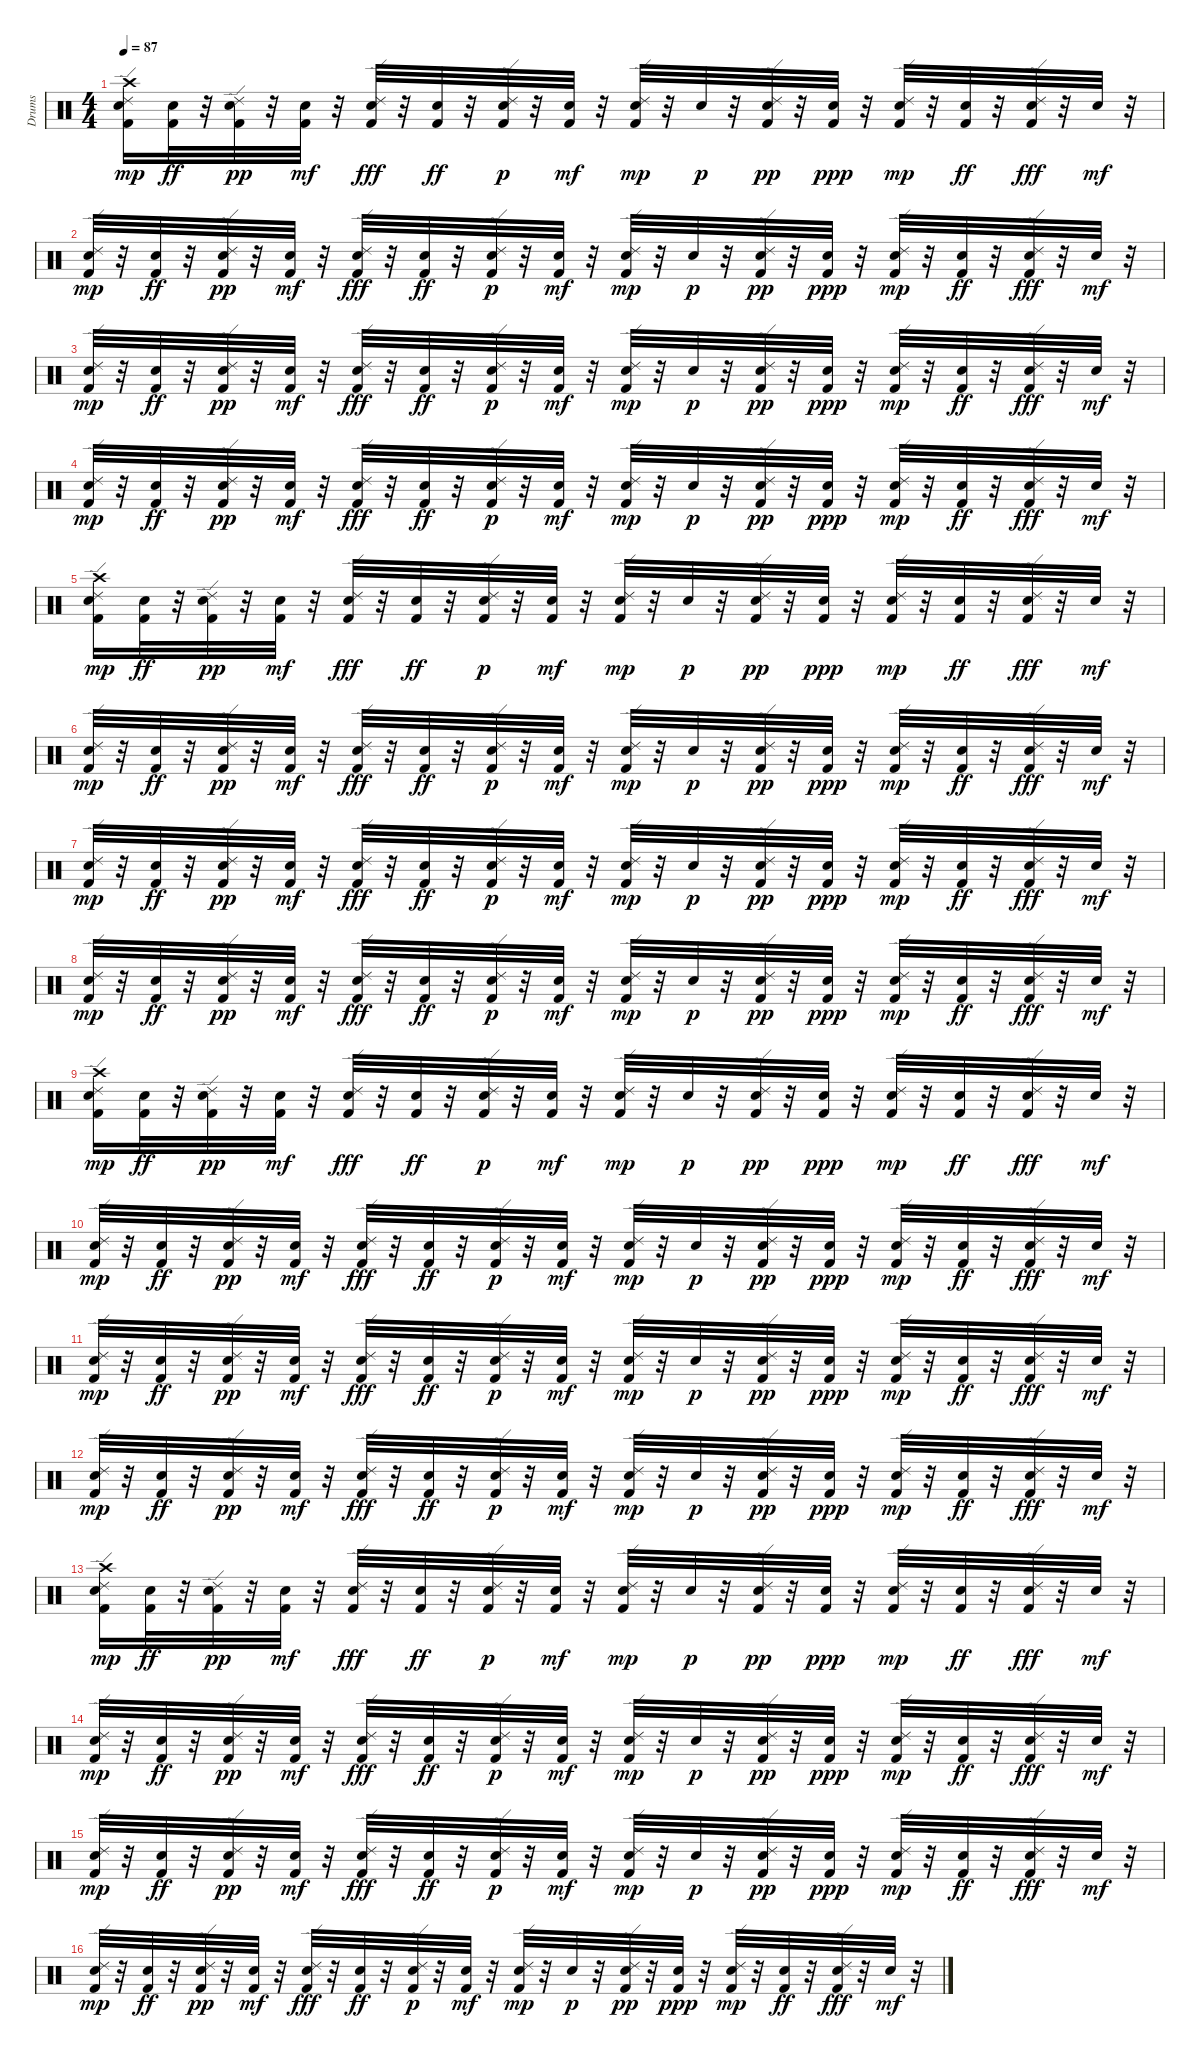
\track ("Drums" "Drums") {instrument percussion}
\staff {score}
\articulation defaults
\ts (4 4)
\tempo 87
\clef neutral
\ks c
("Crash high (hit)" "Ride (edge) 2" "Kick (hit) 2" "Snare (hit) 2").16{dy mp} ("Snare (hit) 2" "Kick (hit) 2").32{dy ff} r.32 ("Ride (edge) 2" "Kick (hit) 2" "Snare (hit) 2").32{dy pp} r.32 ("Snare (hit) 2" "Kick (hit) 2").32{dy mf} r.32 ("Ride (edge) 2" "Kick (hit) 2" "Snare (hit) 2").32{dy fff} r.32 ("Kick (hit) 2" "Snare (hit) 2").32{dy ff} r.32 ("Ride (edge) 2" "Kick (hit) 2" "Snare (hit) 2").32{dy p} r.32 ("Kick (hit) 2" "Snare (hit) 2").32{dy mf} r.32 ("Ride (edge) 2" "Kick (hit) 2" "Snare (hit) 2").32{dy mp} r.32 "Snare (hit) 2".32{dy p} r.32 ("Ride (edge) 2" "Kick (hit) 2" "Snare (hit) 2").32{dy pp} r.32 ("Snare (hit) 2" "Kick (hit) 2").32{dy ppp} r.32 ("Ride (edge) 2" "Snare (hit) 2" "Kick (hit) 2").32{dy mp} r.32 ("Kick (hit) 2" "Snare (hit) 2").32{dy ff} r.32 ("Ride (edge) 2" "Kick (hit) 2" "Snare (hit) 2").32{dy fff} r.32 "Snare (hit) 2".32{dy mf} r.32 |
("Ride (edge) 2" "Kick (hit) 2" "Snare (hit) 2").32{dy mp} r.32 ("Snare (hit) 2" "Kick (hit) 2").32{dy ff} r.32 ("Ride (edge) 2" "Kick (hit) 2" "Snare (hit) 2").32{dy pp} r.32 ("Snare (hit) 2" "Kick (hit) 2").32{dy mf} r.32 ("Ride (edge) 2" "Kick (hit) 2" "Snare (hit) 2").32{dy fff} r.32 ("Kick (hit) 2" "Snare (hit) 2").32{dy ff} r.32 ("Ride (edge) 2" "Kick (hit) 2" "Snare (hit) 2").32{dy p} r.32 ("Kick (hit) 2" "Snare (hit) 2").32{dy mf} r.32 ("Ride (edge) 2" "Kick (hit) 2" "Snare (hit) 2").32{dy mp} r.32 "Snare (hit) 2".32{dy p} r.32 ("Ride (edge) 2" "Kick (hit) 2" "Snare (hit) 2").32{dy pp} r.32 ("Snare (hit) 2" "Kick (hit) 2").32{dy ppp} r.32 ("Ride (edge) 2" "Snare (hit) 2" "Kick (hit) 2").32{dy mp} r.32 ("Kick (hit) 2" "Snare (hit) 2").32{dy ff} r.32 ("Ride (edge) 2" "Kick (hit) 2" "Snare (hit) 2").32{dy fff} r.32 "Snare (hit) 2".32{dy mf} r.32 |
("Ride (edge) 2" "Kick (hit) 2" "Snare (hit) 2").32{dy mp} r.32 ("Snare (hit) 2" "Kick (hit) 2").32{dy ff} r.32 ("Ride (edge) 2" "Kick (hit) 2" "Snare (hit) 2").32{dy pp} r.32 ("Snare (hit) 2" "Kick (hit) 2").32{dy mf} r.32 ("Ride (edge) 2" "Kick (hit) 2" "Snare (hit) 2").32{dy fff} r.32 ("Kick (hit) 2" "Snare (hit) 2").32{dy ff} r.32 ("Ride (edge) 2" "Kick (hit) 2" "Snare (hit) 2").32{dy p} r.32 ("Kick (hit) 2" "Snare (hit) 2").32{dy mf} r.32 ("Ride (edge) 2" "Kick (hit) 2" "Snare (hit) 2").32{dy mp} r.32 "Snare (hit) 2".32{dy p} r.32 ("Ride (edge) 2" "Kick (hit) 2" "Snare (hit) 2").32{dy pp} r.32 ("Snare (hit) 2" "Kick (hit) 2").32{dy ppp} r.32 ("Ride (edge) 2" "Snare (hit) 2" "Kick (hit) 2").32{dy mp} r.32 ("Kick (hit) 2" "Snare (hit) 2").32{dy ff} r.32 ("Ride (edge) 2" "Kick (hit) 2" "Snare (hit) 2").32{dy fff} r.32 "Snare (hit) 2".32{dy mf} r.32 |
("Ride (edge) 2" "Kick (hit) 2" "Snare (hit) 2").32{dy mp} r.32 ("Snare (hit) 2" "Kick (hit) 2").32{dy ff} r.32 ("Ride (edge) 2" "Kick (hit) 2" "Snare (hit) 2").32{dy pp} r.32 ("Snare (hit) 2" "Kick (hit) 2").32{dy mf} r.32 ("Ride (edge) 2" "Kick (hit) 2" "Snare (hit) 2").32{dy fff} r.32 ("Kick (hit) 2" "Snare (hit) 2").32{dy ff} r.32 ("Ride (edge) 2" "Kick (hit) 2" "Snare (hit) 2").32{dy p} r.32 ("Kick (hit) 2" "Snare (hit) 2").32{dy mf} r.32 ("Ride (edge) 2" "Kick (hit) 2" "Snare (hit) 2").32{dy mp} r.32 "Snare (hit) 2".32{dy p} r.32 ("Ride (edge) 2" "Kick (hit) 2" "Snare (hit) 2").32{dy pp} r.32 ("Snare (hit) 2" "Kick (hit) 2").32{dy ppp} r.32 ("Ride (edge) 2" "Snare (hit) 2" "Kick (hit) 2").32{dy mp} r.32 ("Kick (hit) 2" "Snare (hit) 2").32{dy ff} r.32 ("Ride (edge) 2" "Kick (hit) 2" "Snare (hit) 2").32{dy fff} r.32 "Snare (hit) 2".32{dy mf} r.32 |
("Crash high (hit)" "Ride (edge) 2" "Kick (hit) 2" "Snare (hit) 2").16{dy mp} ("Snare (hit) 2" "Kick (hit) 2").32{dy ff} r.32 ("Ride (edge) 2" "Kick (hit) 2" "Snare (hit) 2").32{dy pp} r.32 ("Snare (hit) 2" "Kick (hit) 2").32{dy mf} r.32 ("Ride (edge) 2" "Kick (hit) 2" "Snare (hit) 2").32{dy fff} r.32 ("Kick (hit) 2" "Snare (hit) 2").32{dy ff} r.32 ("Ride (edge) 2" "Kick (hit) 2" "Snare (hit) 2").32{dy p} r.32 ("Kick (hit) 2" "Snare (hit) 2").32{dy mf} r.32 ("Ride (edge) 2" "Kick (hit) 2" "Snare (hit) 2").32{dy mp} r.32 "Snare (hit) 2".32{dy p} r.32 ("Ride (edge) 2" "Kick (hit) 2" "Snare (hit) 2").32{dy pp} r.32 ("Snare (hit) 2" "Kick (hit) 2").32{dy ppp} r.32 ("Ride (edge) 2" "Snare (hit) 2" "Kick (hit) 2").32{dy mp} r.32 ("Kick (hit) 2" "Snare (hit) 2").32{dy ff} r.32 ("Ride (edge) 2" "Kick (hit) 2" "Snare (hit) 2").32{dy fff} r.32 "Snare (hit) 2".32{dy mf} r.32 |
("Ride (edge) 2" "Kick (hit) 2" "Snare (hit) 2").32{dy mp} r.32 ("Snare (hit) 2" "Kick (hit) 2").32{dy ff} r.32 ("Ride (edge) 2" "Kick (hit) 2" "Snare (hit) 2").32{dy pp} r.32 ("Snare (hit) 2" "Kick (hit) 2").32{dy mf} r.32 ("Ride (edge) 2" "Kick (hit) 2" "Snare (hit) 2").32{dy fff} r.32 ("Kick (hit) 2" "Snare (hit) 2").32{dy ff} r.32 ("Ride (edge) 2" "Kick (hit) 2" "Snare (hit) 2").32{dy p} r.32 ("Kick (hit) 2" "Snare (hit) 2").32{dy mf} r.32 ("Ride (edge) 2" "Kick (hit) 2" "Snare (hit) 2").32{dy mp} r.32 "Snare (hit) 2".32{dy p} r.32 ("Ride (edge) 2" "Kick (hit) 2" "Snare (hit) 2").32{dy pp} r.32 ("Snare (hit) 2" "Kick (hit) 2").32{dy ppp} r.32 ("Ride (edge) 2" "Snare (hit) 2" "Kick (hit) 2").32{dy mp} r.32 ("Kick (hit) 2" "Snare (hit) 2").32{dy ff} r.32 ("Ride (edge) 2" "Kick (hit) 2" "Snare (hit) 2").32{dy fff} r.32 "Snare (hit) 2".32{dy mf} r.32 |
("Ride (edge) 2" "Kick (hit) 2" "Snare (hit) 2").32{dy mp} r.32 ("Snare (hit) 2" "Kick (hit) 2").32{dy ff} r.32 ("Ride (edge) 2" "Kick (hit) 2" "Snare (hit) 2").32{dy pp} r.32 ("Snare (hit) 2" "Kick (hit) 2").32{dy mf} r.32 ("Ride (edge) 2" "Kick (hit) 2" "Snare (hit) 2").32{dy fff} r.32 ("Kick (hit) 2" "Snare (hit) 2").32{dy ff} r.32 ("Ride (edge) 2" "Kick (hit) 2" "Snare (hit) 2").32{dy p} r.32 ("Kick (hit) 2" "Snare (hit) 2").32{dy mf} r.32 ("Ride (edge) 2" "Kick (hit) 2" "Snare (hit) 2").32{dy mp} r.32 "Snare (hit) 2".32{dy p} r.32 ("Ride (edge) 2" "Kick (hit) 2" "Snare (hit) 2").32{dy pp} r.32 ("Snare (hit) 2" "Kick (hit) 2").32{dy ppp} r.32 ("Ride (edge) 2" "Snare (hit) 2" "Kick (hit) 2").32{dy mp} r.32 ("Kick (hit) 2" "Snare (hit) 2").32{dy ff} r.32 ("Ride (edge) 2" "Kick (hit) 2" "Snare (hit) 2").32{dy fff} r.32 "Snare (hit) 2".32{dy mf} r.32 |
("Ride (edge) 2" "Kick (hit) 2" "Snare (hit) 2").32{dy mp} r.32 ("Snare (hit) 2" "Kick (hit) 2").32{dy ff} r.32 ("Ride (edge) 2" "Kick (hit) 2" "Snare (hit) 2").32{dy pp} r.32 ("Snare (hit) 2" "Kick (hit) 2").32{dy mf} r.32 ("Ride (edge) 2" "Kick (hit) 2" "Snare (hit) 2").32{dy fff} r.32 ("Kick (hit) 2" "Snare (hit) 2").32{dy ff} r.32 ("Ride (edge) 2" "Kick (hit) 2" "Snare (hit) 2").32{dy p} r.32 ("Kick (hit) 2" "Snare (hit) 2").32{dy mf} r.32 ("Ride (edge) 2" "Kick (hit) 2" "Snare (hit) 2").32{dy mp} r.32 "Snare (hit) 2".32{dy p} r.32 ("Ride (edge) 2" "Kick (hit) 2" "Snare (hit) 2").32{dy pp} r.32 ("Snare (hit) 2" "Kick (hit) 2").32{dy ppp} r.32 ("Ride (edge) 2" "Snare (hit) 2" "Kick (hit) 2").32{dy mp} r.32 ("Kick (hit) 2" "Snare (hit) 2").32{dy ff} r.32 ("Ride (edge) 2" "Kick (hit) 2" "Snare (hit) 2").32{dy fff} r.32 "Snare (hit) 2".32{dy mf} r.32 |
("Crash high (hit)" "Ride (edge) 2" "Kick (hit) 2" "Snare (hit) 2").16{dy mp} ("Snare (hit) 2" "Kick (hit) 2").32{dy ff} r.32 ("Ride (edge) 2" "Kick (hit) 2" "Snare (hit) 2").32{dy pp} r.32 ("Snare (hit) 2" "Kick (hit) 2").32{dy mf} r.32 ("Ride (edge) 2" "Kick (hit) 2" "Snare (hit) 2").32{dy fff} r.32 ("Kick (hit) 2" "Snare (hit) 2").32{dy ff} r.32 ("Ride (edge) 2" "Kick (hit) 2" "Snare (hit) 2").32{dy p} r.32 ("Kick (hit) 2" "Snare (hit) 2").32{dy mf} r.32 ("Ride (edge) 2" "Kick (hit) 2" "Snare (hit) 2").32{dy mp} r.32 "Snare (hit) 2".32{dy p} r.32 ("Ride (edge) 2" "Kick (hit) 2" "Snare (hit) 2").32{dy pp} r.32 ("Snare (hit) 2" "Kick (hit) 2").32{dy ppp} r.32 ("Ride (edge) 2" "Snare (hit) 2" "Kick (hit) 2").32{dy mp} r.32 ("Kick (hit) 2" "Snare (hit) 2").32{dy ff} r.32 ("Ride (edge) 2" "Kick (hit) 2" "Snare (hit) 2").32{dy fff} r.32 "Snare (hit) 2".32{dy mf} r.32 |
("Ride (edge) 2" "Kick (hit) 2" "Snare (hit) 2").32{dy mp} r.32 ("Snare (hit) 2" "Kick (hit) 2").32{dy ff} r.32 ("Ride (edge) 2" "Kick (hit) 2" "Snare (hit) 2").32{dy pp} r.32 ("Snare (hit) 2" "Kick (hit) 2").32{dy mf} r.32 ("Ride (edge) 2" "Kick (hit) 2" "Snare (hit) 2").32{dy fff} r.32 ("Kick (hit) 2" "Snare (hit) 2").32{dy ff} r.32 ("Ride (edge) 2" "Kick (hit) 2" "Snare (hit) 2").32{dy p} r.32 ("Kick (hit) 2" "Snare (hit) 2").32{dy mf} r.32 ("Ride (edge) 2" "Kick (hit) 2" "Snare (hit) 2").32{dy mp} r.32 "Snare (hit) 2".32{dy p} r.32 ("Ride (edge) 2" "Kick (hit) 2" "Snare (hit) 2").32{dy pp} r.32 ("Snare (hit) 2" "Kick (hit) 2").32{dy ppp} r.32 ("Ride (edge) 2" "Snare (hit) 2" "Kick (hit) 2").32{dy mp} r.32 ("Kick (hit) 2" "Snare (hit) 2").32{dy ff} r.32 ("Ride (edge) 2" "Kick (hit) 2" "Snare (hit) 2").32{dy fff} r.32 "Snare (hit) 2".32{dy mf} r.32 |
("Ride (edge) 2" "Kick (hit) 2" "Snare (hit) 2").32{dy mp} r.32 ("Snare (hit) 2" "Kick (hit) 2").32{dy ff} r.32 ("Ride (edge) 2" "Kick (hit) 2" "Snare (hit) 2").32{dy pp} r.32 ("Snare (hit) 2" "Kick (hit) 2").32{dy mf} r.32 ("Ride (edge) 2" "Kick (hit) 2" "Snare (hit) 2").32{dy fff} r.32 ("Kick (hit) 2" "Snare (hit) 2").32{dy ff} r.32 ("Ride (edge) 2" "Kick (hit) 2" "Snare (hit) 2").32{dy p} r.32 ("Kick (hit) 2" "Snare (hit) 2").32{dy mf} r.32 ("Ride (edge) 2" "Kick (hit) 2" "Snare (hit) 2").32{dy mp} r.32 "Snare (hit) 2".32{dy p} r.32 ("Ride (edge) 2" "Kick (hit) 2" "Snare (hit) 2").32{dy pp} r.32 ("Snare (hit) 2" "Kick (hit) 2").32{dy ppp} r.32 ("Ride (edge) 2" "Snare (hit) 2" "Kick (hit) 2").32{dy mp} r.32 ("Kick (hit) 2" "Snare (hit) 2").32{dy ff} r.32 ("Ride (edge) 2" "Kick (hit) 2" "Snare (hit) 2").32{dy fff} r.32 "Snare (hit) 2".32{dy mf} r.32 |
("Ride (edge) 2" "Kick (hit) 2" "Snare (hit) 2").32{dy mp} r.32 ("Snare (hit) 2" "Kick (hit) 2").32{dy ff} r.32 ("Ride (edge) 2" "Kick (hit) 2" "Snare (hit) 2").32{dy pp} r.32 ("Snare (hit) 2" "Kick (hit) 2").32{dy mf} r.32 ("Ride (edge) 2" "Kick (hit) 2" "Snare (hit) 2").32{dy fff} r.32 ("Kick (hit) 2" "Snare (hit) 2").32{dy ff} r.32 ("Ride (edge) 2" "Kick (hit) 2" "Snare (hit) 2").32{dy p} r.32 ("Kick (hit) 2" "Snare (hit) 2").32{dy mf} r.32 ("Ride (edge) 2" "Kick (hit) 2" "Snare (hit) 2").32{dy mp} r.32 "Snare (hit) 2".32{dy p} r.32 ("Ride (edge) 2" "Kick (hit) 2" "Snare (hit) 2").32{dy pp} r.32 ("Snare (hit) 2" "Kick (hit) 2").32{dy ppp} r.32 ("Ride (edge) 2" "Snare (hit) 2" "Kick (hit) 2").32{dy mp} r.32 ("Kick (hit) 2" "Snare (hit) 2").32{dy ff} r.32 ("Ride (edge) 2" "Kick (hit) 2" "Snare (hit) 2").32{dy fff} r.32 "Snare (hit) 2".32{dy mf} r.32 |
("Crash high (hit)" "Ride (edge) 2" "Kick (hit) 2" "Snare (hit) 2").16{dy mp} ("Snare (hit) 2" "Kick (hit) 2").32{dy ff} r.32 ("Ride (edge) 2" "Kick (hit) 2" "Snare (hit) 2").32{dy pp} r.32 ("Snare (hit) 2" "Kick (hit) 2").32{dy mf} r.32 ("Ride (edge) 2" "Kick (hit) 2" "Snare (hit) 2").32{dy fff} r.32 ("Kick (hit) 2" "Snare (hit) 2").32{dy ff} r.32 ("Ride (edge) 2" "Kick (hit) 2" "Snare (hit) 2").32{dy p} r.32 ("Kick (hit) 2" "Snare (hit) 2").32{dy mf} r.32 ("Ride (edge) 2" "Kick (hit) 2" "Snare (hit) 2").32{dy mp} r.32 "Snare (hit) 2".32{dy p} r.32 ("Ride (edge) 2" "Kick (hit) 2" "Snare (hit) 2").32{dy pp} r.32 ("Snare (hit) 2" "Kick (hit) 2").32{dy ppp} r.32 ("Ride (edge) 2" "Snare (hit) 2" "Kick (hit) 2").32{dy mp} r.32 ("Kick (hit) 2" "Snare (hit) 2").32{dy ff} r.32 ("Ride (edge) 2" "Kick (hit) 2" "Snare (hit) 2").32{dy fff} r.32 "Snare (hit) 2".32{dy mf} r.32 |
("Ride (edge) 2" "Kick (hit) 2" "Snare (hit) 2").32{dy mp} r.32 ("Snare (hit) 2" "Kick (hit) 2").32{dy ff} r.32 ("Ride (edge) 2" "Kick (hit) 2" "Snare (hit) 2").32{dy pp} r.32 ("Snare (hit) 2" "Kick (hit) 2").32{dy mf} r.32 ("Ride (edge) 2" "Kick (hit) 2" "Snare (hit) 2").32{dy fff} r.32 ("Kick (hit) 2" "Snare (hit) 2").32{dy ff} r.32 ("Ride (edge) 2" "Kick (hit) 2" "Snare (hit) 2").32{dy p} r.32 ("Kick (hit) 2" "Snare (hit) 2").32{dy mf} r.32 ("Ride (edge) 2" "Kick (hit) 2" "Snare (hit) 2").32{dy mp} r.32 "Snare (hit) 2".32{dy p} r.32 ("Ride (edge) 2" "Kick (hit) 2" "Snare (hit) 2").32{dy pp} r.32 ("Snare (hit) 2" "Kick (hit) 2").32{dy ppp} r.32 ("Ride (edge) 2" "Snare (hit) 2" "Kick (hit) 2").32{dy mp} r.32 ("Kick (hit) 2" "Snare (hit) 2").32{dy ff} r.32 ("Ride (edge) 2" "Kick (hit) 2" "Snare (hit) 2").32{dy fff} r.32 "Snare (hit) 2".32{dy mf} r.32 |
("Ride (edge) 2" "Kick (hit) 2" "Snare (hit) 2").32{dy mp} r.32 ("Snare (hit) 2" "Kick (hit) 2").32{dy ff} r.32 ("Ride (edge) 2" "Kick (hit) 2" "Snare (hit) 2").32{dy pp} r.32 ("Snare (hit) 2" "Kick (hit) 2").32{dy mf} r.32 ("Ride (edge) 2" "Kick (hit) 2" "Snare (hit) 2").32{dy fff} r.32 ("Kick (hit) 2" "Snare (hit) 2").32{dy ff} r.32 ("Ride (edge) 2" "Kick (hit) 2" "Snare (hit) 2").32{dy p} r.32 ("Kick (hit) 2" "Snare (hit) 2").32{dy mf} r.32 ("Ride (edge) 2" "Kick (hit) 2" "Snare (hit) 2").32{dy mp} r.32 "Snare (hit) 2".32{dy p} r.32 ("Ride (edge) 2" "Kick (hit) 2" "Snare (hit) 2").32{dy pp} r.32 ("Snare (hit) 2" "Kick (hit) 2").32{dy ppp} r.32 ("Ride (edge) 2" "Snare (hit) 2" "Kick (hit) 2").32{dy mp} r.32 ("Kick (hit) 2" "Snare (hit) 2").32{dy ff} r.32 ("Ride (edge) 2" "Kick (hit) 2" "Snare (hit) 2").32{dy fff} r.32 "Snare (hit) 2".32{dy mf} r.32 |
("Ride (edge) 2" "Kick (hit) 2" "Snare (hit) 2").32{dy mp} r.32 ("Snare (hit) 2" "Kick (hit) 2").32{dy ff} r.32 ("Ride (edge) 2" "Kick (hit) 2" "Snare (hit) 2").32{dy pp} r.32 ("Snare (hit) 2" "Kick (hit) 2").32{dy mf} r.32 ("Ride (edge) 2" "Kick (hit) 2" "Snare (hit) 2").32{dy fff} r.32 ("Kick (hit) 2" "Snare (hit) 2").32{dy ff} r.32 ("Ride (edge) 2" "Kick (hit) 2" "Snare (hit) 2").32{dy p} r.32 ("Kick (hit) 2" "Snare (hit) 2").32{dy mf} r.32 ("Ride (edge) 2" "Kick (hit) 2" "Snare (hit) 2").32{dy mp} r.32 "Snare (hit) 2".32{dy p} r.32 ("Ride (edge) 2" "Kick (hit) 2" "Snare (hit) 2").32{dy pp} r.32 ("Snare (hit) 2" "Kick (hit) 2").32{dy ppp} r.32 ("Ride (edge) 2" "Snare (hit) 2" "Kick (hit) 2").32{dy mp} r.32 ("Kick (hit) 2" "Snare (hit) 2").32{dy ff} r.32 ("Ride (edge) 2" "Kick (hit) 2" "Snare (hit) 2").32{dy fff} r.32 "Snare (hit) 2".32{dy mf} r.32
